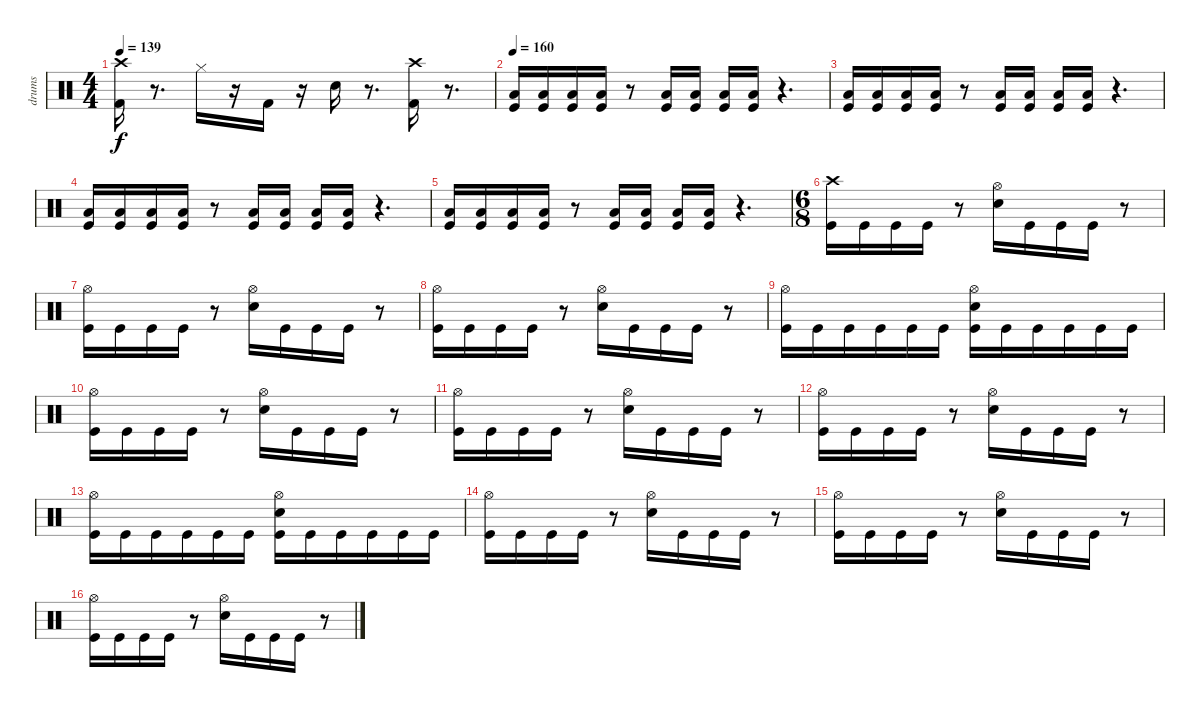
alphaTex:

\track ("drums" "drums") {instrument percussion}
\staff {score}
\articulation defaults
\ts (4 4)
\tempo 139
\clef neutral
\ks c
("Kick (hit) 2" "Crash high (hit)").16{dy f} r.8{d} "Hi-Hat (closed)".16 r.16 "Kick (hit) 2".16 r.16 "Electric Snare (hit)".16 r.8{d} ("Kick (hit) 2" "Crash high (hit)").16 r.8{d} |
\tempo 160
("Kick (hit)" "Low Floor Tom (hit)").16 ("Kick (hit)" "Low Floor Tom (hit)").16 ("Kick (hit)" "Low Floor Tom (hit)").16 ("Kick (hit)" "Low Floor Tom (hit)").16 r.8 ("Kick (hit)" "Low Floor Tom (hit)").16 ("Kick (hit)" "Low Floor Tom (hit)").16 ("Kick (hit)" "Low Floor Tom (hit)").16 ("Kick (hit)" "Low Floor Tom (hit)").16 r.4{d} |
("Kick (hit)" "Low Floor Tom (hit)").16 ("Kick (hit)" "Low Floor Tom (hit)").16 ("Kick (hit)" "Low Floor Tom (hit)").16 ("Kick (hit)" "Low Floor Tom (hit)").16 r.8 ("Kick (hit)" "Low Floor Tom (hit)").16 ("Kick (hit)" "Low Floor Tom (hit)").16 ("Kick (hit)" "Low Floor Tom (hit)").16 ("Kick (hit)" "Low Floor Tom (hit)").16 r.4{d} |
("Kick (hit)" "Low Floor Tom (hit)").16 ("Kick (hit)" "Low Floor Tom (hit)").16 ("Kick (hit)" "Low Floor Tom (hit)").16 ("Kick (hit)" "Low Floor Tom (hit)").16 r.8 ("Kick (hit)" "Low Floor Tom (hit)").16 ("Kick (hit)" "Low Floor Tom (hit)").16 ("Kick (hit)" "Low Floor Tom (hit)").16 ("Kick (hit)" "Low Floor Tom (hit)").16 r.4{d} |
("Kick (hit)" "Low Floor Tom (hit)").16 ("Kick (hit)" "Low Floor Tom (hit)").16 ("Kick (hit)" "Low Floor Tom (hit)").16 ("Kick (hit)" "Low Floor Tom (hit)").16 r.8 ("Kick (hit)" "Low Floor Tom (hit)").16 ("Kick (hit)" "Low Floor Tom (hit)").16 ("Kick (hit)" "Low Floor Tom (hit)").16 ("Kick (hit)" "Low Floor Tom (hit)").16 r.4{d} |
\ts (6 8)
("Kick (hit)" "Crash high (hit)").16 "Kick (hit)".16 "Kick (hit)".16 "Kick (hit)".16 r.8 ("Electric Snare (hit)" "Hi-Hat (open)").16 "Kick (hit)".16 "Kick (hit)".16 "Kick (hit)".16 r.8 |
("Kick (hit)" "Hi-Hat (open)").16 "Kick (hit)".16 "Kick (hit)".16 "Kick (hit)".16 r.8 ("Electric Snare (hit)" "Hi-Hat (open)").16 "Kick (hit)".16 "Kick (hit)".16 "Kick (hit)".16 r.8 |
("Kick (hit)" "Hi-Hat (open)").16 "Kick (hit)".16 "Kick (hit)".16 "Kick (hit)".16 r.8 ("Electric Snare (hit)" "Hi-Hat (open)").16 "Kick (hit)".16 "Kick (hit)".16 "Kick (hit)".16 r.8 |
("Kick (hit)" "Hi-Hat (open)").16 "Kick (hit)".16 "Kick (hit)".16 "Kick (hit)".16 "Kick (hit)".16 "Kick (hit)".16 ("Kick (hit)" "Electric Snare (hit)" "Hi-Hat (open)").16 "Kick (hit)".16 "Kick (hit)".16 "Kick (hit)".16 "Kick (hit)".16 "Kick (hit)".16 |
("Kick (hit)" "Hi-Hat (open)").16 "Kick (hit)".16 "Kick (hit)".16 "Kick (hit)".16 r.8 ("Electric Snare (hit)" "Hi-Hat (open)").16 "Kick (hit)".16 "Kick (hit)".16 "Kick (hit)".16 r.8 |
("Kick (hit)" "Hi-Hat (open)").16 "Kick (hit)".16 "Kick (hit)".16 "Kick (hit)".16 r.8 ("Electric Snare (hit)" "Hi-Hat (open)").16 "Kick (hit)".16 "Kick (hit)".16 "Kick (hit)".16 r.8 |
("Kick (hit)" "Hi-Hat (open)").16 "Kick (hit)".16 "Kick (hit)".16 "Kick (hit)".16 r.8 ("Electric Snare (hit)" "Hi-Hat (open)").16 "Kick (hit)".16 "Kick (hit)".16 "Kick (hit)".16 r.8 |
("Kick (hit)" "Hi-Hat (open)").16 "Kick (hit)".16 "Kick (hit)".16 "Kick (hit)".16 "Kick (hit)".16 "Kick (hit)".16 ("Kick (hit)" "Electric Snare (hit)" "Hi-Hat (open)").16 "Kick (hit)".16 "Kick (hit)".16 "Kick (hit)".16 "Kick (hit)".16 "Kick (hit)".16 |
("Kick (hit)" "Hi-Hat (open)").16 "Kick (hit)".16 "Kick (hit)".16 "Kick (hit)".16 r.8 ("Electric Snare (hit)" "Hi-Hat (open)").16 "Kick (hit)".16 "Kick (hit)".16 "Kick (hit)".16 r.8 |
("Kick (hit)" "Hi-Hat (open)").16 "Kick (hit)".16 "Kick (hit)".16 "Kick (hit)".16 r.8 ("Electric Snare (hit)" "Hi-Hat (open)").16 "Kick (hit)".16 "Kick (hit)".16 "Kick (hit)".16 r.8 |
("Kick (hit)" "Hi-Hat (open)").16 "Kick (hit)".16 "Kick (hit)".16 "Kick (hit)".16 r.8 ("Electric Snare (hit)" "Hi-Hat (open)").16 "Kick (hit)".16 "Kick (hit)".16 "Kick (hit)".16 r.8
